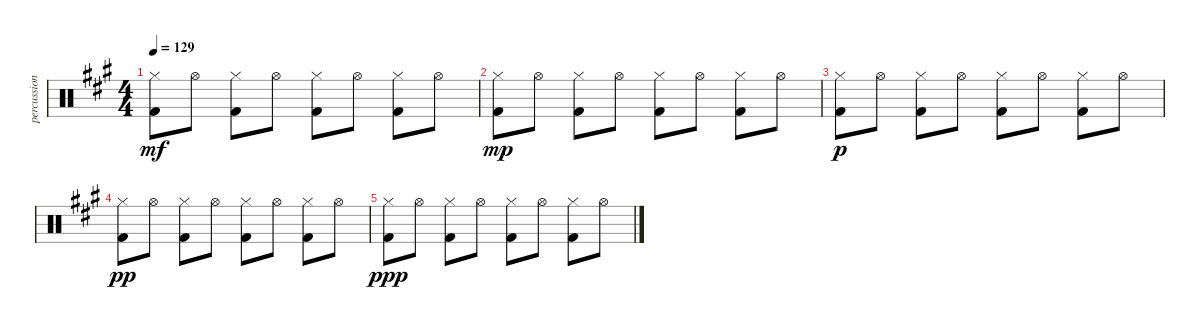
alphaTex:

\track ("percussion" "percussion") {instrument percussion}
\staff {score}
\articulation defaults
\ts (4 4)
\tempo 129
\clef neutral
\ks a
("Hi-Hat (closed)" "Kick (hit) 2").8{dy mf} "Hi-Hat (open)".8 ("Hi-Hat (closed)" "Kick (hit) 2").8 "Hi-Hat (open)".8 ("Hi-Hat (closed)" "Kick (hit) 2").8 "Hi-Hat (open)".8 ("Hi-Hat (closed)" "Kick (hit) 2").8 "Hi-Hat (open)".8 |
("Hi-Hat (closed)" "Kick (hit) 2").8{dy mp} "Hi-Hat (open)".8 ("Hi-Hat (closed)" "Kick (hit) 2").8 "Hi-Hat (open)".8 ("Hi-Hat (closed)" "Kick (hit) 2").8 "Hi-Hat (open)".8 ("Hi-Hat (closed)" "Kick (hit) 2").8 "Hi-Hat (open)".8 |
("Hi-Hat (closed)" "Kick (hit) 2").8{dy p} "Hi-Hat (open)".8 ("Hi-Hat (closed)" "Kick (hit) 2").8 "Hi-Hat (open)".8 ("Hi-Hat (closed)" "Kick (hit) 2").8 "Hi-Hat (open)".8 ("Hi-Hat (closed)" "Kick (hit) 2").8 "Hi-Hat (open)".8 |
("Hi-Hat (closed)" "Kick (hit) 2").8{dy pp} "Hi-Hat (open)".8 ("Hi-Hat (closed)" "Kick (hit) 2").8 "Hi-Hat (open)".8 ("Hi-Hat (closed)" "Kick (hit) 2").8 "Hi-Hat (open)".8 ("Hi-Hat (closed)" "Kick (hit) 2").8 "Hi-Hat (open)".8 |
("Hi-Hat (closed)" "Kick (hit) 2").8{dy ppp} "Hi-Hat (open)".8 ("Hi-Hat (closed)" "Kick (hit) 2").8 "Hi-Hat (open)".8 ("Hi-Hat (closed)" "Kick (hit) 2").8 "Hi-Hat (open)".8 ("Hi-Hat (closed)" "Kick (hit) 2").8 "Hi-Hat (open)".8
